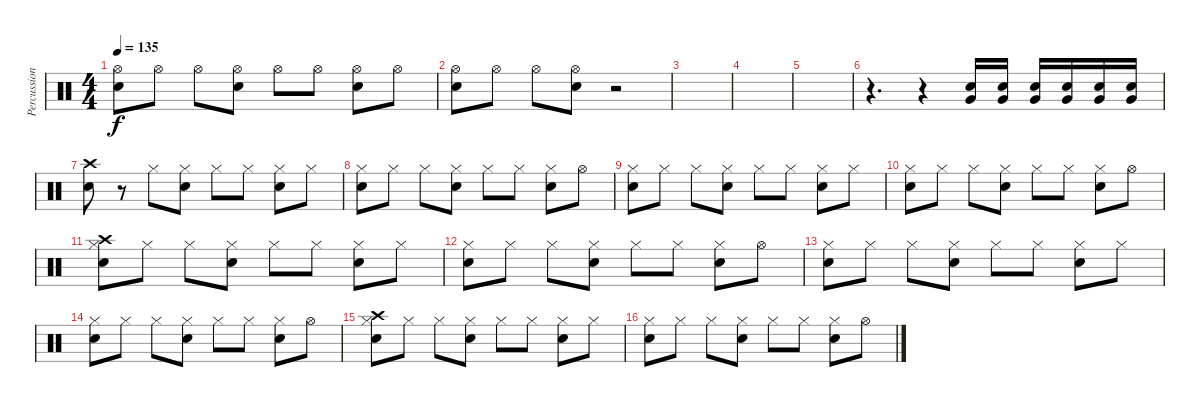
\track ("Percussions" "Percussion") {instrument percussion}
\staff {score}
\articulation defaults
\ts (4 4)
\tempo 135
\clef neutral
\ks c
("Hi-Hat (open)" "Electric Snare (hit)").8{dy f} "Hi-Hat (open)".8 "Hi-Hat (open)".8 ("Hi-Hat (open)" "Electric Snare (hit)").8 "Hi-Hat (open)".8 "Hi-Hat (open)".8 ("Hi-Hat (open)" "Electric Snare (hit)").8 "Hi-Hat (open)".8 |
("Hi-Hat (open)" "Electric Snare (hit)").8 "Hi-Hat (open)".8 "Hi-Hat (open)".8 ("Hi-Hat (open)" "Electric Snare (hit)").8 r.2 |
|
|
|
r.4{d} r.4 ("Electric Snare (hit)" "Very Low Tom (hit)").16 ("Electric Snare (hit)" "Very Low Tom (hit)").16 ("Electric Snare (hit)" "Very Low Tom (hit)").16 ("Electric Snare (hit)" "Very Low Tom (hit)").16 ("Electric Snare (hit)" "Very Low Tom (hit)").16 ("Electric Snare (hit)" "Very Low Tom (hit)").16 |
("Crash high (hit)" "Electric Snare (hit)").8 r.8 "Hi-Hat (closed)".8 ("Hi-Hat (closed)" "Electric Snare (hit)").8 "Hi-Hat (closed)".8 "Hi-Hat (closed)".8 ("Hi-Hat (closed)" "Electric Snare (hit)").8 "Hi-Hat (closed)".8 |
("Hi-Hat (closed)" "Electric Snare (hit)").8 "Hi-Hat (closed)".8 "Hi-Hat (closed)".8 ("Hi-Hat (closed)" "Electric Snare (hit)").8 "Hi-Hat (closed)".8 "Hi-Hat (closed)".8 ("Hi-Hat (closed)" "Electric Snare (hit)").8 "Hi-Hat (open)".8 |
("Hi-Hat (closed)" "Electric Snare (hit)").8 "Hi-Hat (closed)".8 "Hi-Hat (closed)".8 ("Hi-Hat (closed)" "Electric Snare (hit)").8 "Hi-Hat (closed)".8 "Hi-Hat (closed)".8 ("Hi-Hat (closed)" "Electric Snare (hit)").8 "Hi-Hat (closed)".8 |
("Hi-Hat (closed)" "Electric Snare (hit)").8 "Hi-Hat (closed)".8 "Hi-Hat (closed)".8 ("Hi-Hat (closed)" "Electric Snare (hit)").8 "Hi-Hat (closed)".8 "Hi-Hat (closed)".8 ("Hi-Hat (closed)" "Electric Snare (hit)").8 "Hi-Hat (open)".8 |
("Crash high (hit)" "Hi-Hat (closed)" "Electric Snare (hit)").8 "Hi-Hat (closed)".8 "Hi-Hat (closed)".8 ("Hi-Hat (closed)" "Electric Snare (hit)").8 "Hi-Hat (closed)".8 "Hi-Hat (closed)".8 ("Hi-Hat (closed)" "Electric Snare (hit)").8 "Hi-Hat (closed)".8 |
("Hi-Hat (closed)" "Electric Snare (hit)").8 "Hi-Hat (closed)".8 "Hi-Hat (closed)".8 ("Hi-Hat (closed)" "Electric Snare (hit)").8 "Hi-Hat (closed)".8 "Hi-Hat (closed)".8 ("Hi-Hat (closed)" "Electric Snare (hit)").8 "Hi-Hat (open)".8 |
("Hi-Hat (closed)" "Electric Snare (hit)").8 "Hi-Hat (closed)".8 "Hi-Hat (closed)".8 ("Hi-Hat (closed)" "Electric Snare (hit)").8 "Hi-Hat (closed)".8 "Hi-Hat (closed)".8 ("Hi-Hat (closed)" "Electric Snare (hit)").8 "Hi-Hat (closed)".8 |
("Hi-Hat (closed)" "Electric Snare (hit)").8 "Hi-Hat (closed)".8 "Hi-Hat (closed)".8 ("Hi-Hat (closed)" "Electric Snare (hit)").8 "Hi-Hat (closed)".8 "Hi-Hat (closed)".8 ("Hi-Hat (closed)" "Electric Snare (hit)").8 "Hi-Hat (open)".8 |
("Crash high (hit)" "Hi-Hat (closed)" "Electric Snare (hit)").8 "Hi-Hat (closed)".8 "Hi-Hat (closed)".8 ("Hi-Hat (closed)" "Electric Snare (hit)").8 "Hi-Hat (closed)".8 "Hi-Hat (closed)".8 ("Hi-Hat (closed)" "Electric Snare (hit)").8 "Hi-Hat (closed)".8 |
("Hi-Hat (closed)" "Electric Snare (hit)").8 "Hi-Hat (closed)".8 "Hi-Hat (closed)".8 ("Hi-Hat (closed)" "Electric Snare (hit)").8 "Hi-Hat (closed)".8 "Hi-Hat (closed)".8 ("Hi-Hat (closed)" "Electric Snare (hit)").8 "Hi-Hat (open)".8
